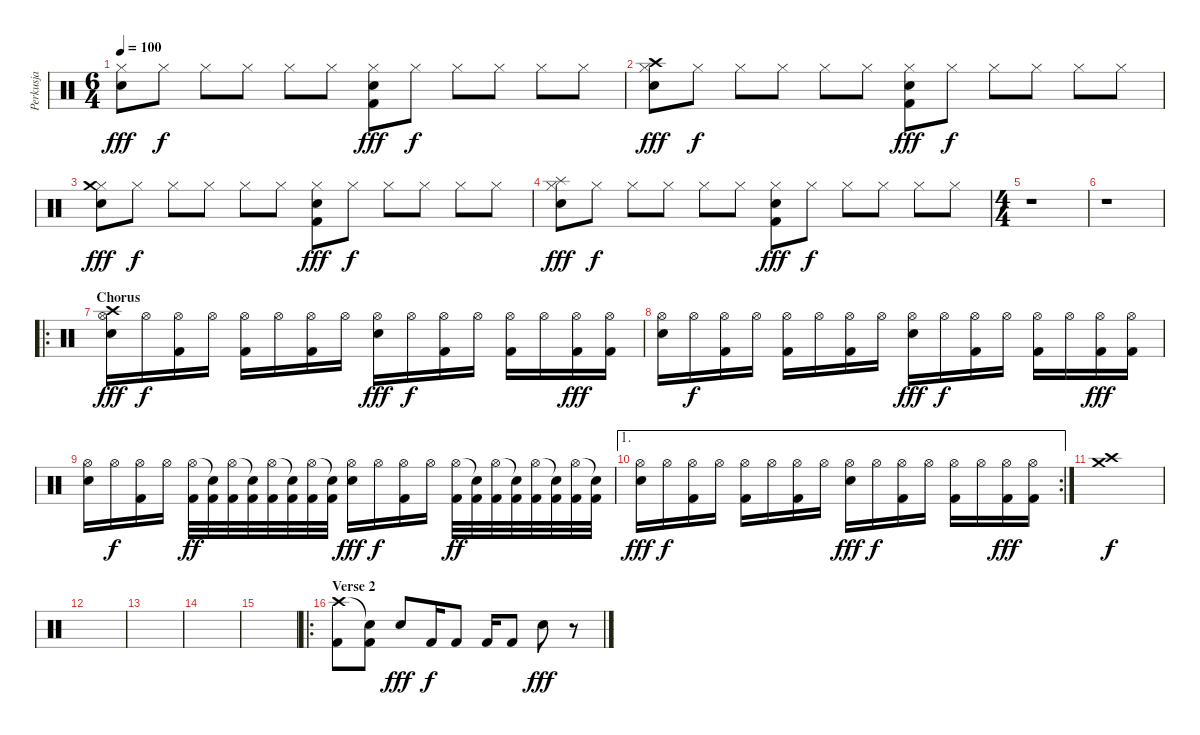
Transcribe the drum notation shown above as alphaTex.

\track ("Perkusja" "Perkusja") {instrument percussion}
\staff {score}
\articulation defaults
\ts (6 4)
\tempo 100
\clef neutral
\ks c
("Hi-Hat (closed)" "Snare (hit) 2").8{dy fff} "Hi-Hat (closed)".8{dy f} "Hi-Hat (closed)".8 "Hi-Hat (closed)".8 "Hi-Hat (closed)".8 "Hi-Hat (closed)".8 ("Hi-Hat (closed)" "Snare (hit) 2" "Kick (hit) 2").8{dy fff} "Hi-Hat (closed)".8{dy f} "Hi-Hat (closed)".8 "Hi-Hat (closed)".8 "Hi-Hat (closed)".8 "Hi-Hat (closed)".8 |
("Hi-Hat (closed)" "Snare (hit) 2" "Crash high (hit)").8{dy fff} "Hi-Hat (closed)".8{dy f} "Hi-Hat (closed)".8 "Hi-Hat (closed)".8 "Hi-Hat (closed)".8 "Hi-Hat (closed)".8 ("Hi-Hat (closed)" "Snare (hit) 2" "Kick (hit) 2").8{dy fff} "Hi-Hat (closed)".8{dy f} "Hi-Hat (closed)".8 "Hi-Hat (closed)".8 "Hi-Hat (closed)".8 "Hi-Hat (closed)".8 |
("Hi-Hat (closed)" "Snare (hit) 2" "Crash medium (hit)").8{dy fff} "Hi-Hat (closed)".8{dy f} "Hi-Hat (closed)".8 "Hi-Hat (closed)".8 "Hi-Hat (closed)".8 "Hi-Hat (closed)".8 ("Hi-Hat (closed)" "Snare (hit) 2" "Kick (hit) 2").8{dy fff} "Hi-Hat (closed)".8{dy f} "Hi-Hat (closed)".8 "Hi-Hat (closed)".8 "Hi-Hat (closed)".8 "Hi-Hat (closed)".8 |
("Hi-Hat (closed)" "Snare (hit) 2" "Splash (hit)").8{dy fff} "Hi-Hat (closed)".8{dy f} "Hi-Hat (closed)".8 "Hi-Hat (closed)".8 "Hi-Hat (closed)".8 "Hi-Hat (closed)".8 ("Hi-Hat (closed)" "Snare (hit) 2" "Kick (hit) 2").8{dy fff} "Hi-Hat (closed)".8{dy f} "Hi-Hat (closed)".8 "Hi-Hat (closed)".8 "Hi-Hat (closed)".8 "Hi-Hat (closed)".8 |
\ts (4 4)
r.1 |
r.1 |
\ro
\section ("" "Chorus")
("Hi-Hat (open)" "Snare (hit) 2" "Crash high (hit)").16{dy fff} "Hi-Hat (open)".16{dy f} ("Hi-Hat (open)" "Kick (hit) 2").16 "Hi-Hat (open)".16 ("Hi-Hat (open)" "Kick (hit) 2").16 "Hi-Hat (open)".16 ("Hi-Hat (open)" "Kick (hit) 2").16 "Hi-Hat (open)".16 ("Hi-Hat (open)" "Snare (hit) 2").16{dy fff} "Hi-Hat (open)".16{dy f} ("Hi-Hat (open)" "Kick (hit) 2").16 "Hi-Hat (open)".16 ("Hi-Hat (open)" "Kick (hit) 2").16 "Hi-Hat (open)".16 ("Hi-Hat (open)" "Kick (hit) 2").16{dy fff} ("Hi-Hat (open)" "Kick (hit) 2").16 |
("Hi-Hat (open)" "Snare (hit) 2").16 "Hi-Hat (open)".16{dy f} ("Hi-Hat (open)" "Kick (hit) 2").16 "Hi-Hat (open)".16 ("Hi-Hat (open)" "Kick (hit) 2").16 "Hi-Hat (open)".16 ("Hi-Hat (open)" "Kick (hit) 2").16 "Hi-Hat (open)".16 ("Hi-Hat (open)" "Snare (hit) 2").16{dy fff} "Hi-Hat (open)".16{dy f} ("Hi-Hat (open)" "Kick (hit) 2").16 "Hi-Hat (open)".16 ("Hi-Hat (open)" "Kick (hit) 2").16 "Hi-Hat (open)".16 ("Hi-Hat (open)" "Kick (hit) 2").16{dy fff} ("Hi-Hat (open)" "Kick (hit) 2").16 |
("Hi-Hat (open)" "Snare (hit) 2").16 "Hi-Hat (open)".16{dy f} ("Hi-Hat (open)" "Kick (hit) 2").16 "Hi-Hat (open)".16 ("Hi-Hat (open)" "Kick (hit) 2").32{dy ff} ("Snare (hit)"{t} "Kick (hit) 2").32 ("Hi-Hat (open)" "Kick (hit) 2").32 ("Snare (hit)"{t} "Kick (hit) 2").32 ("Hi-Hat (open)" "Kick (hit) 2").32 ("Snare (hit)"{t} "Kick (hit) 2").32 ("Hi-Hat (open)" "Kick (hit) 2").32 ("Snare (hit)"{t} "Kick (hit) 2").32 ("Hi-Hat (open)" "Snare (hit) 2").16{dy fff} "Hi-Hat (open)".16{dy f} ("Hi-Hat (open)" "Kick (hit) 2").16 "Hi-Hat (open)".16 ("Hi-Hat (open)" "Kick (hit) 2").32{dy ff} ("Snare (hit)"{t} "Kick (hit) 2").32 ("Hi-Hat (open)" "Kick (hit) 2").32 ("Snare (hit)"{t} "Kick (hit) 2").32 ("Hi-Hat (open)" "Kick (hit) 2").32 ("Snare (hit)"{t} "Kick (hit) 2").32 ("Hi-Hat (open)" "Kick (hit) 2").32 ("Snare (hit)"{t} "Kick (hit) 2").32 |
\ae 1
\rc 2
("Hi-Hat (open)" "Snare (hit) 2").16{dy fff} "Hi-Hat (open)".16{dy f} ("Hi-Hat (open)" "Kick (hit) 2").16 "Hi-Hat (open)".16 ("Hi-Hat (open)" "Kick (hit) 2").16 "Hi-Hat (open)".16 ("Hi-Hat (open)" "Kick (hit) 2").16 "Hi-Hat (open)".16 ("Hi-Hat (open)" "Snare (hit) 2").16{dy fff} "Hi-Hat (open)".16{dy f} ("Hi-Hat (open)" "Kick (hit) 2").16 "Hi-Hat (open)".16 ("Hi-Hat (open)" "Kick (hit) 2").16 "Hi-Hat (open)".16 ("Hi-Hat (open)" "Kick (hit) 2").16{dy fff} ("Hi-Hat (open)" "Kick (hit) 2").16 |
("Crash high (hit)" "Crash medium (hit)").1{dy f} |
|
|
|
|
\ro
\section ("" "Verse 2")
("Kick (hit) 2" "Crash high (hit)").8 ("Kick (hit) 2" "Snare (hit)"{t}).8 "Snare (hit) 2".8{dy fff} "Kick (hit) 2".16{dy f} "Kick (hit) 2".8 "Kick (hit) 2".16 "Kick (hit) 2".8 "Snare (hit) 2".8{dy fff} r.8
